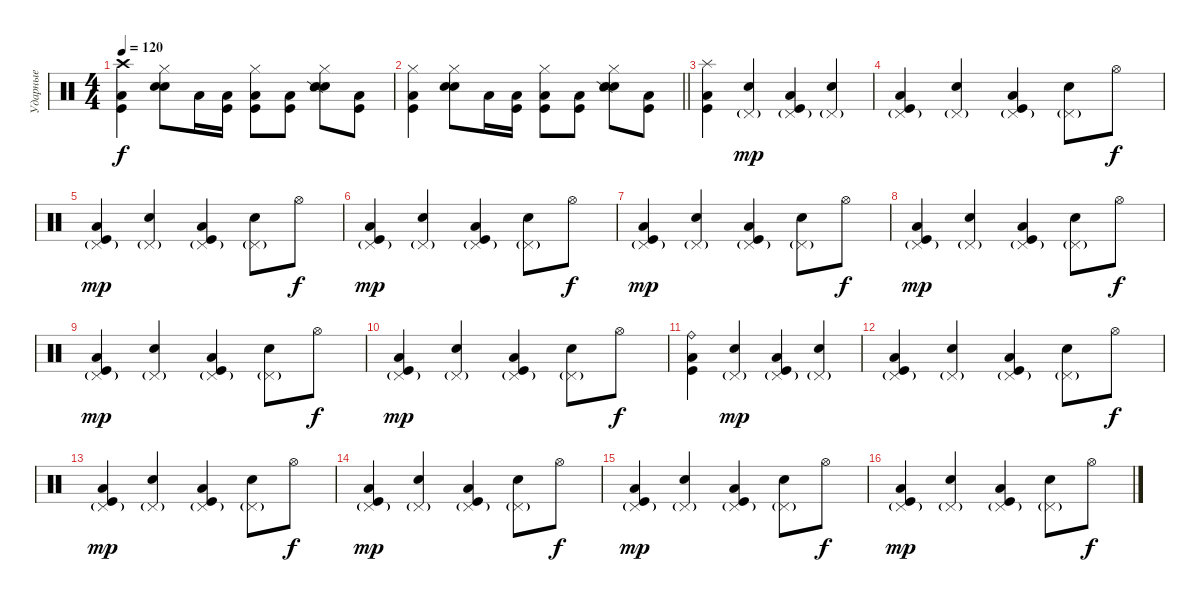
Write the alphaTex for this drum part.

\track ("Ударные" "Ударные") {instrument percussion}
\staff {score}
\articulation defaults
\ts (4 4)
\tempo 120
\clef neutral
\ks c
("Crash high (hit)" "Low Tom (hit)" "Kick (hit)").4{dy f} ("Hi-Hat (closed)" "Electric Snare (hit)" "Snare (hit) 2").8 "Low Floor Tom (hit)".16 ("Low Tom (hit)" "Kick (hit)").16 ("Hi-Hat (closed)" "Low Tom (hit)" "Kick (hit)").8 ("Low Tom (hit)" "Kick (hit)").8 ("Hi-Hat (closed)" "Electric Snare (hit)" "Snare (hit) 2" "Snare (side stick) 2").8 ("Low Tom (hit)" "Kick (hit)").8 |
\barLineRight lightlight
("Hi-Hat (closed)" "Low Tom (hit)" "Kick (hit)").4 ("Hi-Hat (closed)" "Electric Snare (hit)" "Snare (hit) 2").8 "Low Floor Tom (hit)".16 ("Low Tom (hit)" "Kick (hit)").16 ("Hi-Hat (closed)" "Low Tom (hit)" "Kick (hit)").8 ("Low Tom (hit)" "Kick (hit)").8 ("Hi-Hat (closed)" "Electric Snare (hit)" "Snare (hit) 2" "Snare (side stick) 2").8 ("Low Tom (hit)" "Kick (hit)").8 |
("Splash (hit)" "Low Tom (hit)" "Kick (hit)").4 ("Pedal Hi-Hat (hit)"{g} "Electric Snare (hit)").4{dy mp} ("Pedal Hi-Hat (hit)"{g} "Low Tom (hit)" "Kick (hit)").4 ("Pedal Hi-Hat (hit)"{g} "Electric Snare (hit)").4 |
("Pedal Hi-Hat (hit)"{g} "Low Tom (hit)" "Kick (hit)").4 ("Pedal Hi-Hat (hit)"{g} "Electric Snare (hit)").4 ("Pedal Hi-Hat (hit)"{g} "Low Tom (hit)" "Kick (hit)").4 ("Pedal Hi-Hat (hit)"{g} "Electric Snare (hit)").8 "Hi-Hat (open)".8{dy f} |
("Pedal Hi-Hat (hit)"{g} "Low Tom (hit)" "Kick (hit)").4{dy mp} ("Pedal Hi-Hat (hit)"{g} "Electric Snare (hit)").4 ("Pedal Hi-Hat (hit)"{g} "Low Tom (hit)" "Kick (hit)").4 ("Pedal Hi-Hat (hit)"{g} "Electric Snare (hit)").8 "Hi-Hat (open)".8{dy f} |
("Pedal Hi-Hat (hit)"{g} "Low Tom (hit)" "Kick (hit)").4{dy mp} ("Pedal Hi-Hat (hit)"{g} "Electric Snare (hit)").4 ("Pedal Hi-Hat (hit)"{g} "Low Tom (hit)" "Kick (hit)").4 ("Pedal Hi-Hat (hit)"{g} "Electric Snare (hit)").8 "Hi-Hat (open)".8{dy f} |
("Pedal Hi-Hat (hit)"{g} "Low Tom (hit)" "Kick (hit)").4{dy mp} ("Pedal Hi-Hat (hit)"{g} "Electric Snare (hit)").4 ("Pedal Hi-Hat (hit)"{g} "Low Tom (hit)" "Kick (hit)").4 ("Pedal Hi-Hat (hit)"{g} "Electric Snare (hit)").8 "Hi-Hat (open)".8{dy f} |
("Pedal Hi-Hat (hit)"{g} "Low Tom (hit)" "Kick (hit)").4{dy mp} ("Pedal Hi-Hat (hit)"{g} "Electric Snare (hit)").4 ("Pedal Hi-Hat (hit)"{g} "Low Tom (hit)" "Kick (hit)").4 ("Pedal Hi-Hat (hit)"{g} "Electric Snare (hit)").8 "Hi-Hat (open)".8{dy f} |
("Pedal Hi-Hat (hit)"{g} "Low Tom (hit)" "Kick (hit)").4{dy mp} ("Pedal Hi-Hat (hit)"{g} "Electric Snare (hit)").4 ("Pedal Hi-Hat (hit)"{g} "Low Tom (hit)" "Kick (hit)").4 ("Pedal Hi-Hat (hit)"{g} "Electric Snare (hit)").8 "Hi-Hat (open)".8{dy f} |
("Pedal Hi-Hat (hit)"{g} "Low Tom (hit)" "Kick (hit)").4{dy mp} ("Pedal Hi-Hat (hit)"{g} "Electric Snare (hit)").4 ("Pedal Hi-Hat (hit)"{g} "Low Tom (hit)" "Kick (hit)").4 ("Pedal Hi-Hat (hit)"{g} "Electric Snare (hit)").8 "Hi-Hat (open)".8{dy f} |
("Ride (bell)" "Low Tom (hit)" "Kick (hit)").4 ("Pedal Hi-Hat (hit)"{g} "Electric Snare (hit)").4{dy mp} ("Pedal Hi-Hat (hit)"{g} "Low Tom (hit)" "Kick (hit)").4 ("Pedal Hi-Hat (hit)"{g} "Electric Snare (hit)").4 |
("Pedal Hi-Hat (hit)"{g} "Low Tom (hit)" "Kick (hit)").4 ("Pedal Hi-Hat (hit)"{g} "Electric Snare (hit)").4 ("Pedal Hi-Hat (hit)"{g} "Low Tom (hit)" "Kick (hit)").4 ("Pedal Hi-Hat (hit)"{g} "Electric Snare (hit)").8 "Hi-Hat (open)".8{dy f} |
("Pedal Hi-Hat (hit)"{g} "Low Tom (hit)" "Kick (hit)").4{dy mp} ("Pedal Hi-Hat (hit)"{g} "Electric Snare (hit)").4 ("Pedal Hi-Hat (hit)"{g} "Low Tom (hit)" "Kick (hit)").4 ("Pedal Hi-Hat (hit)"{g} "Electric Snare (hit)").8 "Hi-Hat (open)".8{dy f} |
("Pedal Hi-Hat (hit)"{g} "Low Tom (hit)" "Kick (hit)").4{dy mp} ("Pedal Hi-Hat (hit)"{g} "Electric Snare (hit)").4 ("Pedal Hi-Hat (hit)"{g} "Low Tom (hit)" "Kick (hit)").4 ("Pedal Hi-Hat (hit)"{g} "Electric Snare (hit)").8 "Hi-Hat (open)".8{dy f} |
("Pedal Hi-Hat (hit)"{g} "Low Tom (hit)" "Kick (hit)").4{dy mp} ("Pedal Hi-Hat (hit)"{g} "Electric Snare (hit)").4 ("Pedal Hi-Hat (hit)"{g} "Low Tom (hit)" "Kick (hit)").4 ("Pedal Hi-Hat (hit)"{g} "Electric Snare (hit)").8 "Hi-Hat (open)".8{dy f} |
("Pedal Hi-Hat (hit)"{g} "Low Tom (hit)" "Kick (hit)").4{dy mp} ("Pedal Hi-Hat (hit)"{g} "Electric Snare (hit)").4 ("Pedal Hi-Hat (hit)"{g} "Low Tom (hit)" "Kick (hit)").4 ("Pedal Hi-Hat (hit)"{g} "Electric Snare (hit)").8 "Hi-Hat (open)".8{dy f}
